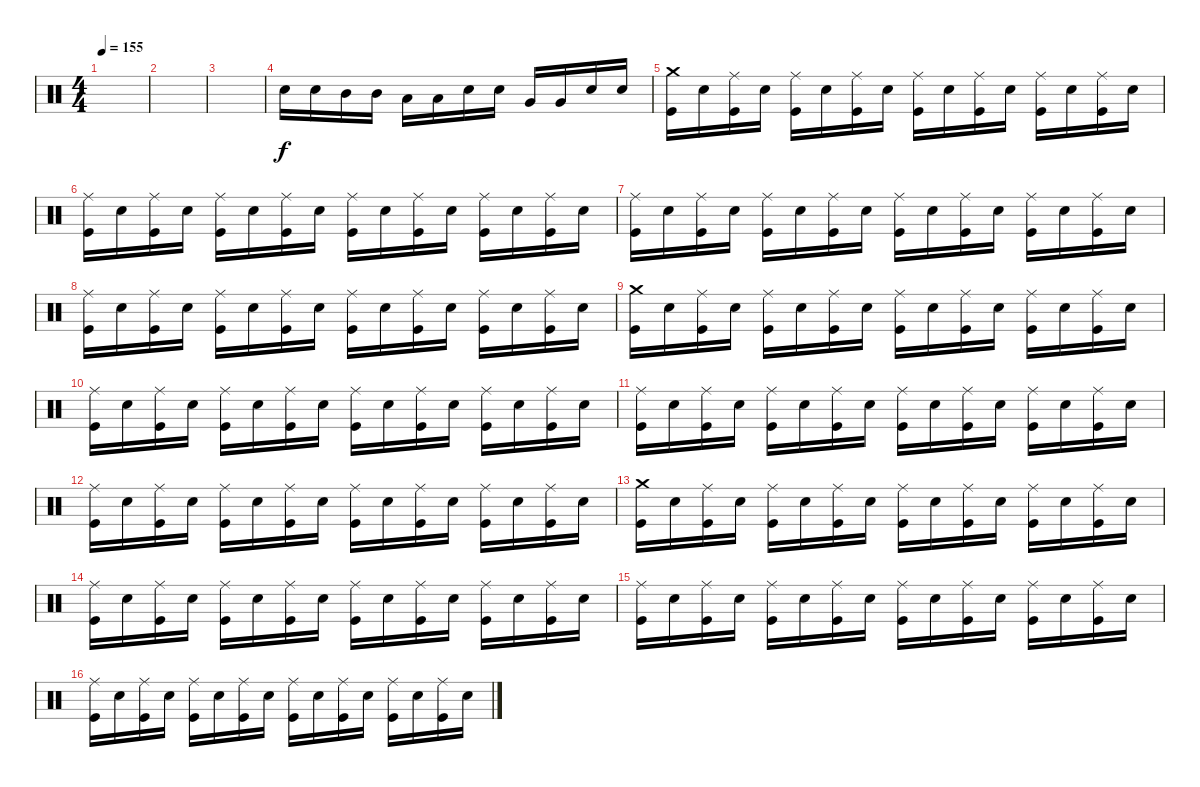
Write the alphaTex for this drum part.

\track "" {instrument percussion}
\staff {score}
\articulation defaults
\ts (4 4)
\tempo 155
\clef neutral
\ks c
|
|
|
"Snare (hit) 2".16 "Snare (hit) 2".16 "Mid Tom (hit)".16 "Mid Tom (hit)".16 "Low Tom (hit)".16 "Low Tom (hit)".16 "Snare (hit) 2".16 "Snare (hit) 2".16 "Very Low Tom (hit)".16 "Very Low Tom (hit)".16 "Snare (hit) 2".16 "Snare (hit) 2".16 |
("Kick (hit)" "Crash medium (hit)").16 "Snare (hit) 2".16 ("Kick (hit)" "Ride (middle)").16 "Snare (hit) 2".16 ("Kick (hit)" "Ride (middle)").16 "Snare (hit) 2".16 ("Kick (hit)" "Ride (middle)").16 "Snare (hit) 2".16 ("Kick (hit)" "Ride (middle)").16 "Snare (hit) 2".16 ("Kick (hit)" "Ride (middle)").16 "Snare (hit) 2".16 ("Kick (hit)" "Ride (middle)").16 "Snare (hit) 2".16 ("Kick (hit)" "Ride (middle)").16 "Snare (hit) 2".16 |
("Kick (hit)" "Ride (middle)").16 "Snare (hit) 2".16 ("Kick (hit)" "Ride (middle)").16 "Snare (hit) 2".16 ("Kick (hit)" "Ride (middle)").16 "Snare (hit) 2".16 ("Kick (hit)" "Ride (middle)").16 "Snare (hit) 2".16 ("Kick (hit)" "Ride (middle)").16 "Snare (hit) 2".16 ("Kick (hit)" "Ride (middle)").16 "Snare (hit) 2".16 ("Kick (hit)" "Ride (middle)").16 "Snare (hit) 2".16 ("Kick (hit)" "Ride (middle)").16 "Snare (hit) 2".16 |
("Kick (hit)" "Ride (middle)").16 "Snare (hit) 2".16 ("Kick (hit)" "Ride (middle)").16 "Snare (hit) 2".16 ("Kick (hit)" "Ride (middle)").16 "Snare (hit) 2".16 ("Kick (hit)" "Ride (middle)").16 "Snare (hit) 2".16 ("Kick (hit)" "Ride (middle)").16 "Snare (hit) 2".16 ("Kick (hit)" "Ride (middle)").16 "Snare (hit) 2".16 ("Kick (hit)" "Ride (middle)").16 "Snare (hit) 2".16 ("Kick (hit)" "Ride (middle)").16 "Snare (hit) 2".16 |
("Kick (hit)" "Ride (middle)").16 "Snare (hit) 2".16 ("Kick (hit)" "Ride (middle)").16 "Snare (hit) 2".16 ("Kick (hit)" "Ride (middle)").16 "Snare (hit) 2".16 ("Kick (hit)" "Ride (middle)").16 "Snare (hit) 2".16 ("Kick (hit)" "Ride (middle)").16 "Snare (hit) 2".16 ("Kick (hit)" "Ride (middle)").16 "Snare (hit) 2".16 ("Kick (hit)" "Ride (middle)").16 "Snare (hit) 2".16 ("Kick (hit)" "Ride (middle)").16 "Snare (hit) 2".16 |
("Kick (hit)" "Crash medium (hit)").16 "Snare (hit) 2".16 ("Kick (hit)" "Ride (middle)").16 "Snare (hit) 2".16 ("Kick (hit)" "Ride (middle)").16 "Snare (hit) 2".16 ("Kick (hit)" "Ride (middle)").16 "Snare (hit) 2".16 ("Kick (hit)" "Ride (middle)").16 "Snare (hit) 2".16 ("Kick (hit)" "Ride (middle)").16 "Snare (hit) 2".16 ("Kick (hit)" "Ride (middle)").16 "Snare (hit) 2".16 ("Kick (hit)" "Ride (middle)").16 "Snare (hit) 2".16 |
("Kick (hit)" "Ride (middle)").16 "Snare (hit) 2".16 ("Kick (hit)" "Ride (middle)").16 "Snare (hit) 2".16 ("Kick (hit)" "Ride (middle)").16 "Snare (hit) 2".16 ("Kick (hit)" "Ride (middle)").16 "Snare (hit) 2".16 ("Kick (hit)" "Ride (middle)").16 "Snare (hit) 2".16 ("Kick (hit)" "Ride (middle)").16 "Snare (hit) 2".16 ("Kick (hit)" "Ride (middle)").16 "Snare (hit) 2".16 ("Kick (hit)" "Ride (middle)").16 "Snare (hit) 2".16 |
("Kick (hit)" "Ride (middle)").16 "Snare (hit) 2".16 ("Kick (hit)" "Ride (middle)").16 "Snare (hit) 2".16 ("Kick (hit)" "Ride (middle)").16 "Snare (hit) 2".16 ("Kick (hit)" "Ride (middle)").16 "Snare (hit) 2".16 ("Kick (hit)" "Ride (middle)").16 "Snare (hit) 2".16 ("Kick (hit)" "Ride (middle)").16 "Snare (hit) 2".16 ("Kick (hit)" "Ride (middle)").16 "Snare (hit) 2".16 ("Kick (hit)" "Ride (middle)").16 "Snare (hit) 2".16 |
("Kick (hit)" "Ride (middle)").16 "Snare (hit) 2".16 ("Kick (hit)" "Ride (middle)").16 "Snare (hit) 2".16 ("Kick (hit)" "Ride (middle)").16 "Snare (hit) 2".16 ("Kick (hit)" "Ride (middle)").16 "Snare (hit) 2".16 ("Kick (hit)" "Ride (middle)").16 "Snare (hit) 2".16 ("Kick (hit)" "Ride (middle)").16 "Snare (hit) 2".16 ("Kick (hit)" "Ride (middle)").16 "Snare (hit) 2".16 ("Kick (hit)" "Ride (middle)").16 "Snare (hit) 2".16 |
("Kick (hit)" "Crash medium (hit)").16 "Snare (hit) 2".16 ("Kick (hit)" "Ride (middle)").16 "Snare (hit) 2".16 ("Kick (hit)" "Ride (middle)").16 "Snare (hit) 2".16 ("Kick (hit)" "Ride (middle)").16 "Snare (hit) 2".16 ("Kick (hit)" "Ride (middle)").16 "Snare (hit) 2".16 ("Kick (hit)" "Ride (middle)").16 "Snare (hit) 2".16 ("Kick (hit)" "Ride (middle)").16 "Snare (hit) 2".16 ("Kick (hit)" "Ride (middle)").16 "Snare (hit) 2".16 |
("Kick (hit)" "Ride (middle)").16 "Snare (hit) 2".16 ("Kick (hit)" "Ride (middle)").16 "Snare (hit) 2".16 ("Kick (hit)" "Ride (middle)").16 "Snare (hit) 2".16 ("Kick (hit)" "Ride (middle)").16 "Snare (hit) 2".16 ("Kick (hit)" "Ride (middle)").16 "Snare (hit) 2".16 ("Kick (hit)" "Ride (middle)").16 "Snare (hit) 2".16 ("Kick (hit)" "Ride (middle)").16 "Snare (hit) 2".16 ("Kick (hit)" "Ride (middle)").16 "Snare (hit) 2".16 |
("Kick (hit)" "Ride (middle)").16 "Snare (hit) 2".16 ("Kick (hit)" "Ride (middle)").16 "Snare (hit) 2".16 ("Kick (hit)" "Ride (middle)").16 "Snare (hit) 2".16 ("Kick (hit)" "Ride (middle)").16 "Snare (hit) 2".16 ("Kick (hit)" "Ride (middle)").16 "Snare (hit) 2".16 ("Kick (hit)" "Ride (middle)").16 "Snare (hit) 2".16 ("Kick (hit)" "Ride (middle)").16 "Snare (hit) 2".16 ("Kick (hit)" "Ride (middle)").16 "Snare (hit) 2".16 |
("Kick (hit)" "Ride (middle)").16 "Snare (hit) 2".16 ("Kick (hit)" "Ride (middle)").16 "Snare (hit) 2".16 ("Kick (hit)" "Ride (middle)").16 "Snare (hit) 2".16 ("Kick (hit)" "Ride (middle)").16 "Snare (hit) 2".16 ("Kick (hit)" "Ride (middle)").16 "Snare (hit) 2".16 ("Kick (hit)" "Ride (middle)").16 "Snare (hit) 2".16 ("Kick (hit)" "Ride (middle)").16 "Snare (hit) 2".16 ("Kick (hit)" "Ride (middle)").16 "Snare (hit) 2".16
